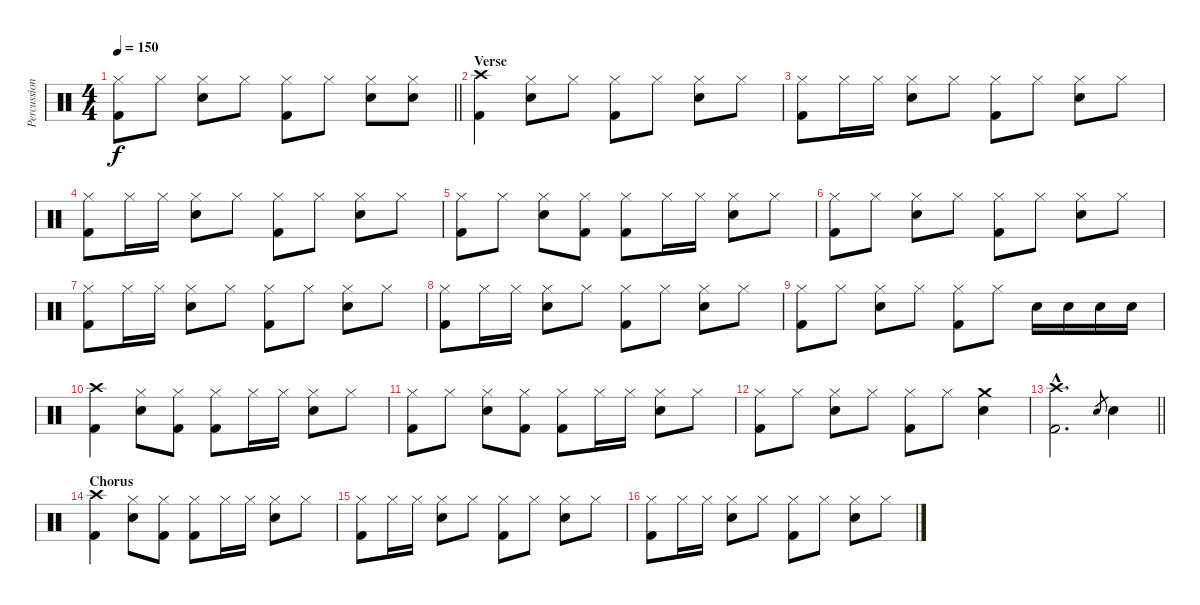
\track ("Percussion" "Percussion") {instrument percussion}
\staff {score}
\articulation defaults
\ts (4 4)
\tempo 150
\clef neutral
\barLineRight lightlight
\ks c
("Hi-Hat (closed)" "Kick (hit) 2").8{dy f} "Hi-Hat (closed)".8 ("Hi-Hat (closed)" "Snare (hit) 2").8 "Hi-Hat (closed)".8 ("Hi-Hat (closed)" "Kick (hit) 2").8 "Hi-Hat (closed)".8 ("Hi-Hat (closed)" "Snare (hit) 2").8 ("Hi-Hat (closed)" "Snare (hit) 2").8 |
\section ("" "Verse")
("Crash high (hit)" "Kick (hit) 2").4 ("Hi-Hat (closed)" "Snare (hit) 2").8 "Hi-Hat (closed)".8 ("Hi-Hat (closed)" "Kick (hit) 2").8 "Hi-Hat (closed)".8 ("Hi-Hat (closed)" "Snare (hit) 2").8 "Hi-Hat (closed)".8 |
("Hi-Hat (closed)" "Kick (hit) 2").8 "Hi-Hat (closed)".16 "Hi-Hat (closed)".16 ("Hi-Hat (closed)" "Snare (hit) 2").8 "Hi-Hat (closed)".8 ("Hi-Hat (closed)" "Kick (hit) 2").8 "Hi-Hat (closed)".8 ("Hi-Hat (closed)" "Snare (hit) 2").8 "Hi-Hat (closed)".8 |
("Hi-Hat (closed)" "Kick (hit) 2").8 "Hi-Hat (closed)".16 "Hi-Hat (closed)".16 ("Hi-Hat (closed)" "Snare (hit) 2").8 "Hi-Hat (closed)".8 ("Hi-Hat (closed)" "Kick (hit) 2").8 "Hi-Hat (closed)".8 ("Hi-Hat (closed)" "Snare (hit) 2").8 "Hi-Hat (closed)".8 |
("Hi-Hat (closed)" "Kick (hit) 2").8 "Hi-Hat (closed)".8 ("Hi-Hat (closed)" "Snare (hit) 2").8 ("Hi-Hat (closed)" "Kick (hit) 2").8 ("Hi-Hat (closed)" "Kick (hit) 2").8 "Hi-Hat (closed)".16 "Hi-Hat (closed)".16 ("Hi-Hat (closed)" "Snare (hit) 2").8 "Hi-Hat (closed)".8 |
("Hi-Hat (closed)" "Kick (hit) 2").8 "Hi-Hat (closed)".8 ("Hi-Hat (closed)" "Snare (hit) 2").8 "Hi-Hat (closed)".8 ("Hi-Hat (closed)" "Kick (hit) 2").8 "Hi-Hat (closed)".8 ("Hi-Hat (closed)" "Snare (hit) 2").8 "Hi-Hat (closed)".8 |
("Hi-Hat (closed)" "Kick (hit) 2").8 "Hi-Hat (closed)".16 "Hi-Hat (closed)".16 ("Hi-Hat (closed)" "Snare (hit) 2").8 "Hi-Hat (closed)".8 ("Hi-Hat (closed)" "Kick (hit) 2").8 "Hi-Hat (closed)".8 ("Hi-Hat (closed)" "Snare (hit) 2").8 "Hi-Hat (closed)".8 |
("Hi-Hat (closed)" "Kick (hit) 2").8 "Hi-Hat (closed)".16 "Hi-Hat (closed)".16 ("Hi-Hat (closed)" "Snare (hit) 2").8 "Hi-Hat (closed)".8 ("Hi-Hat (closed)" "Kick (hit) 2").8 "Hi-Hat (closed)".8 ("Hi-Hat (closed)" "Snare (hit) 2").8 "Hi-Hat (closed)".8 |
("Hi-Hat (closed)" "Kick (hit) 2").8 "Hi-Hat (closed)".8 ("Hi-Hat (closed)" "Snare (hit) 2").8 "Hi-Hat (closed)".8 ("Hi-Hat (closed)" "Kick (hit) 2").8 "Hi-Hat (closed)".8 "Snare (hit) 2".16 "Snare (hit) 2".16 "Snare (hit) 2".16 "Snare (hit) 2".16 |
("Crash high (hit)" "Kick (hit) 2").4 ("Hi-Hat (closed)" "Snare (hit) 2").8 ("Hi-Hat (closed)" "Kick (hit) 2").8 ("Hi-Hat (closed)" "Kick (hit) 2").8 "Hi-Hat (closed)".16 "Hi-Hat (closed)".16 ("Hi-Hat (closed)" "Snare (hit) 2").8 "Hi-Hat (closed)".8 |
("Hi-Hat (closed)" "Kick (hit) 2").8 "Hi-Hat (closed)".8 ("Hi-Hat (closed)" "Snare (hit) 2").8 ("Hi-Hat (closed)" "Kick (hit) 2").8 ("Hi-Hat (closed)" "Kick (hit) 2").8 "Hi-Hat (closed)".16 "Hi-Hat (closed)".16 ("Hi-Hat (closed)" "Snare (hit) 2").8 "Hi-Hat (closed)".8 |
("Hi-Hat (closed)" "Kick (hit) 2").8 "Hi-Hat (closed)".8 ("Hi-Hat (closed)" "Snare (hit) 2").8 "Hi-Hat (closed)".8 ("Hi-Hat (closed)" "Kick (hit) 2").8 "Hi-Hat (closed)".8 ("Crash medium (hit)" "Snare (hit) 2").4 |
\barLineRight lightlight
("Crash high (hit)"{hac} "Kick (hit) 2"{hac}).2{d} "Snare (hit) 2".8{gr} "Snare (hit) 2".4 |
\section ("" "Chorus")
("Crash high (hit)" "Kick (hit) 2").4 ("Hi-Hat (closed)" "Snare (hit) 2").8 ("Hi-Hat (closed)" "Kick (hit) 2").8 ("Hi-Hat (closed)" "Kick (hit) 2").8 "Hi-Hat (closed)".16 "Hi-Hat (closed)".16 ("Hi-Hat (closed)" "Snare (hit) 2").8 "Hi-Hat (closed)".8 |
("Hi-Hat (closed)" "Kick (hit) 2").8 "Hi-Hat (closed)".16 "Hi-Hat (closed)".16 ("Hi-Hat (closed)" "Snare (hit) 2").8 "Hi-Hat (closed)".8 ("Hi-Hat (closed)" "Kick (hit) 2").8 "Hi-Hat (closed)".8 ("Hi-Hat (closed)" "Snare (hit) 2").8 "Hi-Hat (closed)".8 |
("Hi-Hat (closed)" "Kick (hit) 2").8 "Hi-Hat (closed)".16 "Hi-Hat (closed)".16 ("Hi-Hat (closed)" "Snare (hit) 2").8 "Hi-Hat (closed)".8 ("Hi-Hat (closed)" "Kick (hit) 2").8 "Hi-Hat (closed)".8 ("Hi-Hat (closed)" "Snare (hit) 2").8 "Hi-Hat (closed)".8
